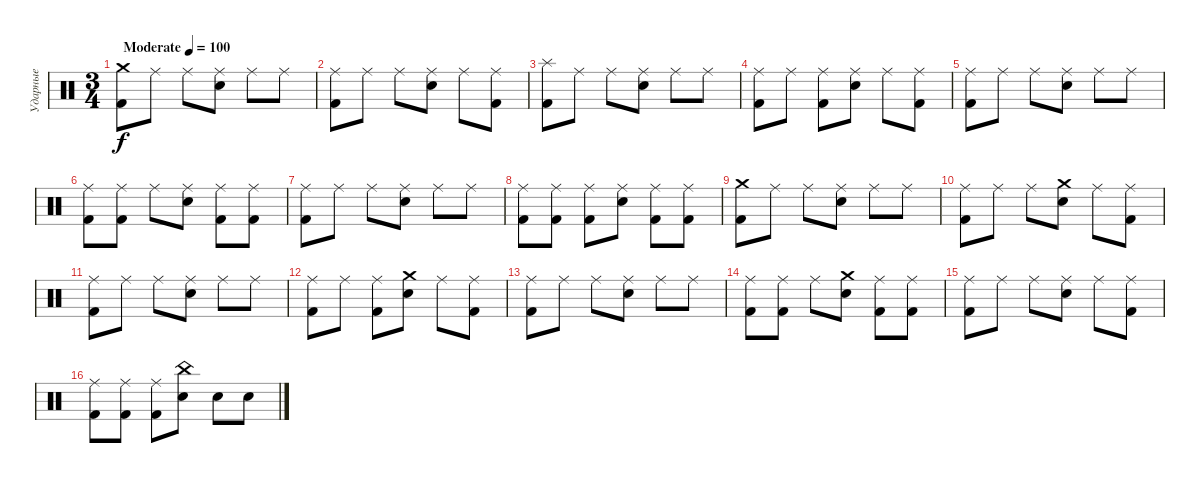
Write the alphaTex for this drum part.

\track ("Ударные" "Ударные") {instrument percussion}
\staff {score}
\articulation defaults
\ts (3 4)
\tempo (100 "Moderate")
\clef neutral
\ks c
("Crash medium (hit)" "Kick (hit) 2").8{dy f} "Ride (middle)".8 "Ride (middle)".8 ("Ride (middle)" "Electric Snare (hit)").8 "Ride (middle)".8 "Ride (middle)".8 |
("Ride (middle)" "Kick (hit) 2").8 "Ride (middle)".8 "Ride (middle)".8 ("Ride (middle)" "Electric Snare (hit)").8 "Ride (middle)".8 ("Ride (middle)" "Kick (hit) 2").8 |
("Splash (hit)" "Kick (hit) 2").8 "Ride (middle)".8 "Ride (middle)".8 ("Ride (middle)" "Electric Snare (hit)").8 "Ride (middle)".8 "Ride (middle)".8 |
("Ride (middle)" "Kick (hit) 2").8 "Ride (middle)".8 ("Ride (middle)" "Kick (hit) 2").8 ("Ride (middle)" "Electric Snare (hit)").8 "Ride (middle)".8 ("Ride (middle)" "Kick (hit) 2").8 |
("Ride (middle)" "Kick (hit) 2").8 "Ride (middle)".8 "Ride (middle)".8 ("Ride (middle)" "Electric Snare (hit)").8 "Ride (middle)".8 "Ride (middle)".8 |
("Ride (middle)" "Kick (hit) 2").8 ("Ride (middle)" "Kick (hit) 2").8 "Ride (middle)".8 ("Ride (middle)" "Electric Snare (hit)").8 ("Ride (middle)" "Kick (hit) 2").8 ("Ride (middle)" "Kick (hit) 2").8 |
("Ride (middle)" "Kick (hit) 2").8 "Ride (middle)".8 "Ride (middle)".8 ("Ride (middle)" "Electric Snare (hit)").8 "Ride (middle)".8 "Ride (middle)".8 |
("Ride (middle)" "Kick (hit) 2").8 ("Ride (middle)" "Kick (hit) 2").8 ("Ride (middle)" "Kick (hit) 2").8 ("Ride (middle)" "Electric Snare (hit)").8 ("Ride (middle)" "Kick (hit) 2").8 ("Ride (middle)" "Kick (hit) 2").8 |
("Crash medium (hit)" "Kick (hit) 2").8 "Ride (middle)".8 "Ride (middle)".8 ("Ride (middle)" "Electric Snare (hit)").8 "Ride (middle)".8 "Ride (middle)".8 |
("Ride (middle)" "Kick (hit) 2").8 "Ride (middle)".8 "Ride (middle)".8 ("Crash medium (hit)" "Electric Snare (hit)").8 "Ride (middle)".8 ("Ride (middle)" "Kick (hit) 2").8 |
("Ride (middle)" "Kick (hit) 2").8 "Ride (middle)".8 "Ride (middle)".8 ("Ride (middle)" "Electric Snare (hit)").8 "Ride (middle)".8 "Ride (middle)".8 |
("Ride (middle)" "Kick (hit) 2").8 "Ride (middle)".8 ("Ride (middle)" "Kick (hit) 2").8 ("Crash medium (hit)" "Electric Snare (hit)").8 "Ride (middle)".8 ("Ride (middle)" "Kick (hit) 2").8 |
("Ride (middle)" "Kick (hit) 2").8 "Ride (middle)".8 "Ride (middle)".8 ("Ride (middle)" "Electric Snare (hit)").8 "Ride (middle)".8 "Ride (middle)".8 |
("Ride (middle)" "Kick (hit) 2").8 ("Ride (middle)" "Kick (hit) 2").8 "Ride (middle)".8 ("Crash medium (hit)" "Electric Snare (hit)").8 ("Ride (middle)" "Kick (hit) 2").8 ("Ride (middle)" "Kick (hit) 2").8 |
("Ride (middle)" "Kick (hit) 2").8 "Ride (middle)".8 "Ride (middle)".8 ("Ride (middle)" "Electric Snare (hit)").8 "Ride (middle)".8 ("Ride (middle)" "Kick (hit) 2").8 |
("Ride (middle)" "Kick (hit) 2").8 ("Ride (middle)" "Kick (hit) 2").8 ("Ride (middle)" "Kick (hit) 2").8 ("China (hit)" "Electric Snare (hit)").8 "Electric Snare (hit)".8 "Electric Snare (hit)".8
